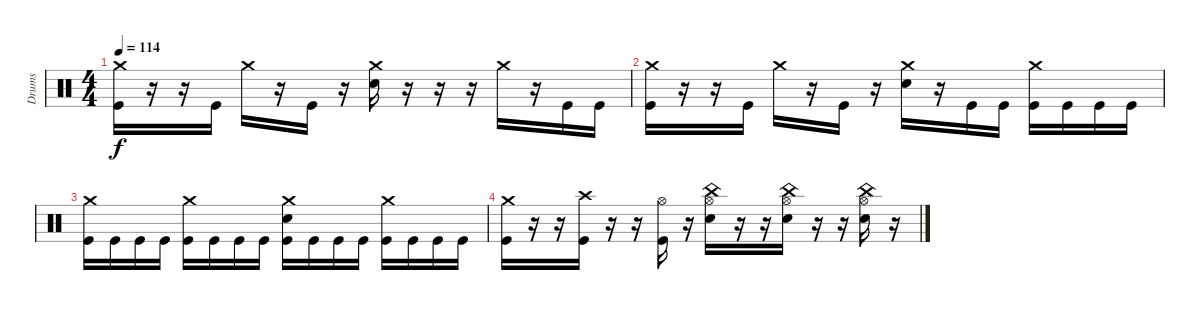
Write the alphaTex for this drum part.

\track ("Drums" "Drums") {instrument percussion}
\staff {score}
\articulation defaults
\ts (4 4)
\tempo 114
\clef neutral
\ks c
("Crash medium (hit)" "Kick (hit)").16{dy f} r.16 r.16 "Kick (hit)".16 "Crash medium (hit)".16 r.16 "Kick (hit)".16 r.16 ("Crash medium (hit)" "Electric Snare (hit)").16 r.16 r.16 r.16 "Crash medium (hit)".16 r.16 "Kick (hit)".16 "Kick (hit)".16 |
("Crash medium (hit)" "Kick (hit)").16 r.16 r.16 "Kick (hit)".16 "Crash medium (hit)".16 r.16 "Kick (hit)".16 r.16 ("Crash medium (hit)" "Electric Snare (hit)").16 r.16 "Kick (hit)".16 "Kick (hit)".16 ("Crash medium (hit)" "Kick (hit)").16 "Kick (hit)".16 "Kick (hit)".16 "Kick (hit)".16 |
("Crash medium (hit)" "Kick (hit)").16 "Kick (hit)".16 "Kick (hit)".16 "Kick (hit)".16 ("Crash medium (hit)" "Kick (hit)").16 "Kick (hit)".16 "Kick (hit)".16 "Kick (hit)".16 ("Crash medium (hit)" "Electric Snare (hit)" "Kick (hit)").16 "Kick (hit)".16 "Kick (hit)".16 "Kick (hit)".16 ("Crash medium (hit)" "Kick (hit)").16 "Kick (hit)".16 "Kick (hit)".16 "Kick (hit)".16 |
("Crash medium (hit)" "Kick (hit)").16 r.16 r.16 ("Crash high (hit)" "Kick (hit)").16 r.16 r.16 ("Hi-Hat (open)" "Kick (hit)").16 r.16 ("China (hit)" "Hi-Hat (open)" "Electric Snare (hit)").16 r.16 r.16 ("China (hit)" "Hi-Hat (open)" "Electric Snare (hit)").16 r.16 r.16 ("China (hit)" "Hi-Hat (open)" "Electric Snare (hit)").16 r.16
